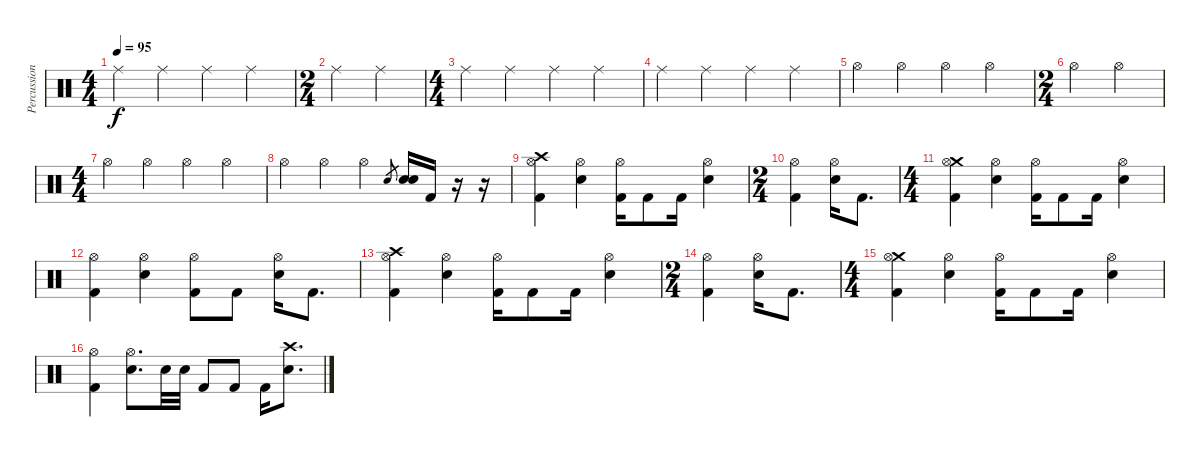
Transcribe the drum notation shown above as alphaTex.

\track ("Percussions" "Percussion") {instrument percussion}
\staff {score}
\articulation defaults
\ts (4 4)
\tempo 95
\clef neutral
\ks c "Ride (middle)".4{dy f} "Ride (middle)".4 "Ride (middle)".4 "Ride (middle)".4
|
\ts (2 4)
"Ride (middle)".4 "Ride (middle)".4 |
\ts (4 4)
"Ride (middle)".4 "Ride (middle)".4 "Ride (middle)".4 "Ride (middle)".4 |
"Ride (middle)".4 "Ride (middle)".4 "Ride (middle)".4 "Ride (middle)".4 |
"Hi-Hat (open)".4 "Hi-Hat (open)".4 "Hi-Hat (open)".4 "Hi-Hat (open)".4 |
\ts (2 4)
"Hi-Hat (open)".4 "Hi-Hat (open)".4 |
\ts (4 4)
"Hi-Hat (open)".4 "Hi-Hat (open)".4 "Hi-Hat (open)".4 "Hi-Hat (open)".4 |
"Hi-Hat (open)".4 "Hi-Hat (open)".4 "Hi-Hat (open)".4 "Electric Snare (hit)".8{gr} ("Electric Snare (hit)" "Electric Snare (hit)").16 "Kick (hit) 2".16 r.16 r.16 |
("Crash high (hit)" "Hi-Hat (open)" "Kick (hit) 2").4 ("Hi-Hat (open)" "Electric Snare (hit)").4 ("Hi-Hat (open)" "Kick (hit) 2").16 "Kick (hit) 2".8 "Kick (hit) 2".16 ("Hi-Hat (open)" "Electric Snare (hit)").4 |
\ts (2 4)
("Hi-Hat (open)" "Kick (hit) 2").4 ("Hi-Hat (open)" "Electric Snare (hit)").16 "Kick (hit) 2".8{d} |
\ts (4 4)
("Crash medium (hit)" "Hi-Hat (open)" "Kick (hit) 2").4 ("Hi-Hat (open)" "Electric Snare (hit)").4 ("Hi-Hat (open)" "Kick (hit) 2").16 "Kick (hit) 2".8 "Kick (hit) 2".16 ("Hi-Hat (open)" "Electric Snare (hit)").4 |
("Hi-Hat (open)" "Kick (hit) 2").4 ("Hi-Hat (open)" "Electric Snare (hit)").4 ("Hi-Hat (open)" "Kick (hit) 2").8 "Kick (hit) 2".8 ("Hi-Hat (open)" "Electric Snare (hit)").16 "Kick (hit) 2".8{d} |
("Crash high (hit)" "Hi-Hat (open)" "Kick (hit) 2").4 ("Hi-Hat (open)" "Electric Snare (hit)").4 ("Hi-Hat (open)" "Kick (hit) 2").16 "Kick (hit) 2".8 "Kick (hit) 2".16 ("Hi-Hat (open)" "Electric Snare (hit)").4 |
\ts (2 4)
("Hi-Hat (open)" "Kick (hit) 2").4 ("Hi-Hat (open)" "Electric Snare (hit)").16 "Kick (hit) 2".8{d} |
\ts (4 4)
("Crash medium (hit)" "Hi-Hat (open)" "Kick (hit) 2").4 ("Hi-Hat (open)" "Electric Snare (hit)").4 ("Hi-Hat (open)" "Kick (hit) 2").16 "Kick (hit) 2".8 "Kick (hit) 2".16 ("Hi-Hat (open)" "Electric Snare (hit)").4 |
("Hi-Hat (open)" "Kick (hit) 2").4 ("Hi-Hat (open)" "Electric Snare (hit)").8{d} "Electric Snare (hit)".32 "Electric Snare (hit)".32 "Kick (hit) 2".8 "Kick (hit) 2".8 "Kick (hit) 2".16 ("Crash high (hit)" "Electric Snare (hit)").8{d}
